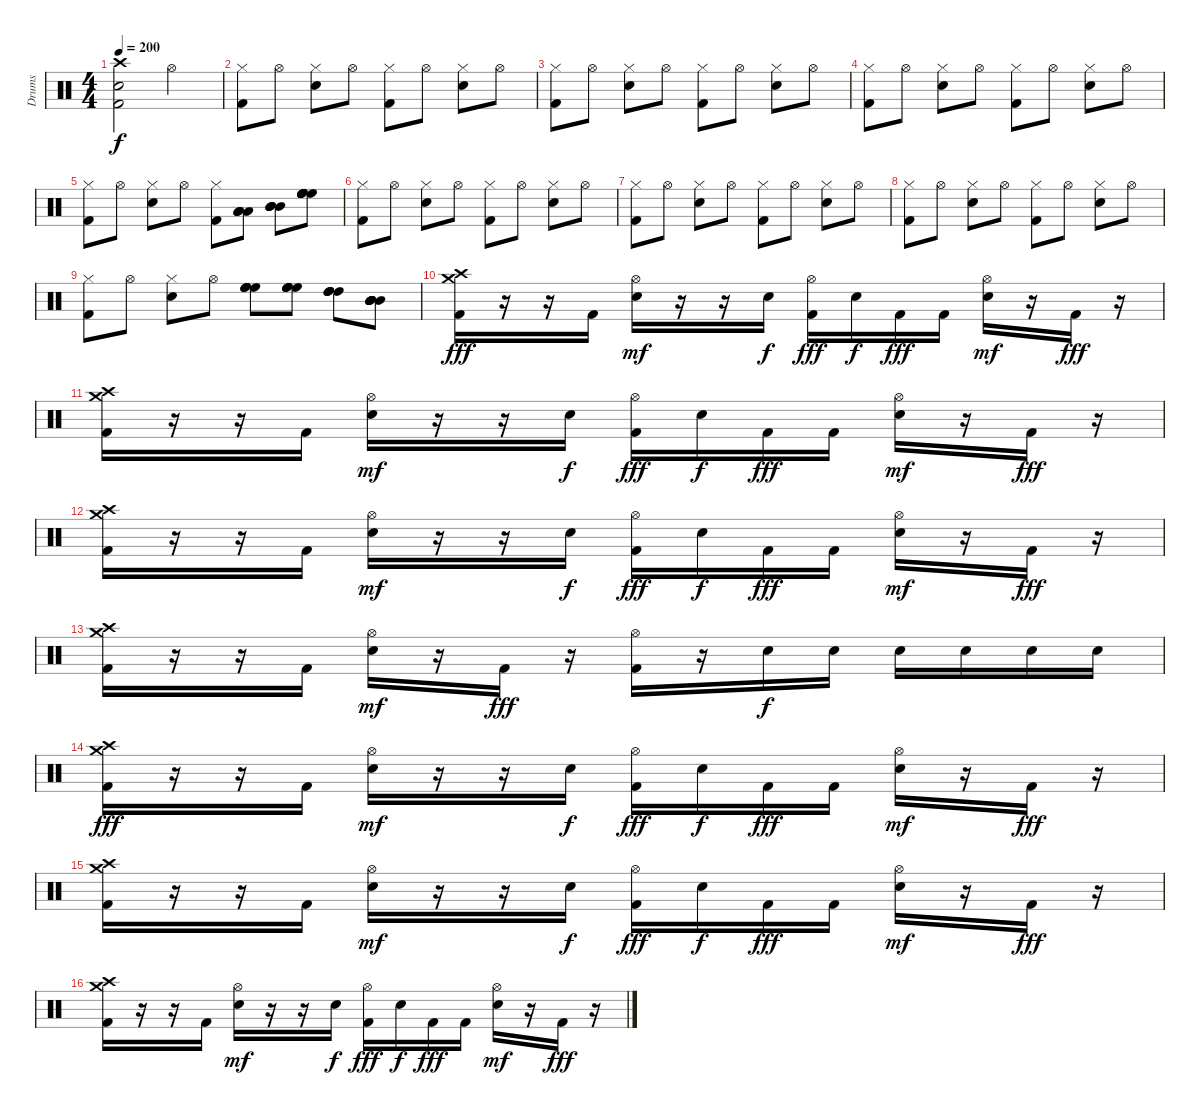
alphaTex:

\track ("Drums" "Drums") {instrument percussion}
\staff {score}
\articulation defaults
\ts (4 4)
\tempo 200
\clef neutral
\ks c
("Crash high (hit)" "Snare (hit) 2" "Kick (hit) 2").2{dy f} "Hi-Hat (open)".2 |
("Hi-Hat (closed)" "Kick (hit) 2").8 "Hi-Hat (open)".8 ("Hi-Hat (closed)" "Snare (hit) 2").8 "Hi-Hat (open)".8 ("Hi-Hat (closed)" "Kick (hit) 2").8 "Hi-Hat (open)".8 ("Hi-Hat (closed)" "Snare (hit) 2").8 "Hi-Hat (open)".8 |
("Hi-Hat (closed)" "Kick (hit) 2").8 "Hi-Hat (open)".8 ("Hi-Hat (closed)" "Snare (hit) 2").8 "Hi-Hat (open)".8 ("Hi-Hat (closed)" "Kick (hit) 2").8 "Hi-Hat (open)".8 ("Hi-Hat (closed)" "Snare (hit) 2").8 "Hi-Hat (open)".8 |
("Hi-Hat (closed)" "Kick (hit) 2").8 "Hi-Hat (open)".8 ("Hi-Hat (closed)" "Snare (hit) 2").8 "Hi-Hat (open)".8 ("Hi-Hat (closed)" "Kick (hit) 2").8 "Hi-Hat (open)".8 ("Hi-Hat (closed)" "Snare (hit) 2").8 "Hi-Hat (open)".8 |
("Hi-Hat (closed)" "Kick (hit) 2").8 "Hi-Hat (open)".8 ("Hi-Hat (closed)" "Snare (hit) 2").8 "Hi-Hat (open)".8 ("Hi-Hat (closed)" "Kick (hit) 2").8 ("Low Tom (hit)" "Low Tom (hit)" "Low Tom (hit)" "Low Tom (hit)").8 ("Mid Tom (hit)" "Mid Tom (hit)" "Mid Tom (hit)" "Mid Tom (hit)").8 ("High Floor Tom (hit)" "High Floor Tom (hit)" "High Floor Tom (hit)" "High Floor Tom (hit)" "High Floor Tom (hit)" "High Floor Tom (hit)").8 |
("Hi-Hat (closed)" "Kick (hit) 2").8 "Hi-Hat (open)".8 ("Hi-Hat (closed)" "Snare (hit) 2").8 "Hi-Hat (open)".8 ("Hi-Hat (closed)" "Kick (hit) 2").8 "Hi-Hat (open)".8 ("Hi-Hat (closed)" "Snare (hit) 2").8 "Hi-Hat (open)".8 |
("Hi-Hat (closed)" "Kick (hit) 2").8 "Hi-Hat (open)".8 ("Hi-Hat (closed)" "Snare (hit) 2").8 "Hi-Hat (open)".8 ("Hi-Hat (closed)" "Kick (hit) 2").8 "Hi-Hat (open)".8 ("Hi-Hat (closed)" "Snare (hit) 2").8 "Hi-Hat (open)".8 |
("Hi-Hat (closed)" "Kick (hit) 2").8 "Hi-Hat (open)".8 ("Hi-Hat (closed)" "Snare (hit) 2").8 "Hi-Hat (open)".8 ("Hi-Hat (closed)" "Kick (hit) 2").8 "Hi-Hat (open)".8 ("Hi-Hat (closed)" "Snare (hit) 2").8 "Hi-Hat (open)".8 |
("Hi-Hat (closed)" "Kick (hit) 2").8 "Hi-Hat (open)".8 ("Hi-Hat (closed)" "Snare (hit) 2").8 "Hi-Hat (open)".8 ("High Floor Tom (hit)" "High Floor Tom (hit)" "High Floor Tom (hit)" "High Floor Tom (hit)").8 ("High Floor Tom (hit)" "High Floor Tom (hit)" "High Floor Tom (hit)" "High Floor Tom (hit)").8 ("High Tom (hit)" "High Tom (hit)" "High Tom (hit)" "High Tom (hit)").8 ("Mid Tom (hit)" "Mid Tom (hit)" "Mid Tom (hit)" "Mid Tom (hit)" "Mid Tom (hit)" "Mid Tom (hit)").8 |
("Crash medium (hit)" "Crash high (hit)" "Kick (hit) 2").16{dy fff} r.16 r.16 "Kick (hit) 2".16 ("Hi-Hat (open)" "Snare (hit) 2").16{dy mf} r.16 r.16 "Snare (hit) 2".16{dy f} ("Hi-Hat (open)" "Kick (hit) 2").16{dy fff} "Snare (hit) 2".16{dy f} "Kick (hit) 2".16{dy fff} "Kick (hit) 2".16 ("Hi-Hat (open)" "Snare (hit) 2").16{dy mf} r.16 "Kick (hit) 2".16{dy fff} r.16 |
("Crash medium (hit)" "Crash high (hit)" "Kick (hit) 2").16 r.16 r.16 "Kick (hit) 2".16 ("Hi-Hat (open)" "Snare (hit) 2").16{dy mf} r.16 r.16 "Snare (hit) 2".16{dy f} ("Hi-Hat (open)" "Kick (hit) 2").16{dy fff} "Snare (hit) 2".16{dy f} "Kick (hit) 2".16{dy fff} "Kick (hit) 2".16 ("Hi-Hat (open)" "Snare (hit) 2").16{dy mf} r.16 "Kick (hit) 2".16{dy fff} r.16 |
("Crash medium (hit)" "Crash high (hit)" "Kick (hit) 2").16 r.16 r.16 "Kick (hit) 2".16 ("Hi-Hat (open)" "Snare (hit) 2").16{dy mf} r.16 r.16 "Snare (hit) 2".16{dy f} ("Hi-Hat (open)" "Kick (hit) 2").16{dy fff} "Snare (hit) 2".16{dy f} "Kick (hit) 2".16{dy fff} "Kick (hit) 2".16 ("Hi-Hat (open)" "Snare (hit) 2").16{dy mf} r.16 "Kick (hit) 2".16{dy fff} r.16 |
("Crash medium (hit)" "Crash high (hit)" "Kick (hit) 2").16 r.16 r.16 "Kick (hit) 2".16 ("Hi-Hat (open)" "Snare (hit) 2").16{dy mf} r.16 "Kick (hit) 2".16{dy fff} r.16 ("Hi-Hat (open)" "Kick (hit) 2").16 r.16 "Snare (hit) 2".16{dy f} "Snare (hit) 2".16 "Snare (hit) 2".16 "Snare (hit) 2".16 "Snare (hit) 2".16 "Snare (hit) 2".16 |
("Crash medium (hit)" "Crash high (hit)" "Kick (hit) 2").16{dy fff} r.16 r.16 "Kick (hit) 2".16 ("Hi-Hat (open)" "Snare (hit) 2").16{dy mf} r.16 r.16 "Snare (hit) 2".16{dy f} ("Hi-Hat (open)" "Kick (hit) 2").16{dy fff} "Snare (hit) 2".16{dy f} "Kick (hit) 2".16{dy fff} "Kick (hit) 2".16 ("Hi-Hat (open)" "Snare (hit) 2").16{dy mf} r.16 "Kick (hit) 2".16{dy fff} r.16 |
("Crash medium (hit)" "Crash high (hit)" "Kick (hit) 2").16 r.16 r.16 "Kick (hit) 2".16 ("Hi-Hat (open)" "Snare (hit) 2").16{dy mf} r.16 r.16 "Snare (hit) 2".16{dy f} ("Hi-Hat (open)" "Kick (hit) 2").16{dy fff} "Snare (hit) 2".16{dy f} "Kick (hit) 2".16{dy fff} "Kick (hit) 2".16 ("Hi-Hat (open)" "Snare (hit) 2").16{dy mf} r.16 "Kick (hit) 2".16{dy fff} r.16 |
("Crash medium (hit)" "Crash high (hit)" "Kick (hit) 2").16 r.16 r.16 "Kick (hit) 2".16 ("Hi-Hat (open)" "Snare (hit) 2").16{dy mf} r.16 r.16 "Snare (hit) 2".16{dy f} ("Hi-Hat (open)" "Kick (hit) 2").16{dy fff} "Snare (hit) 2".16{dy f} "Kick (hit) 2".16{dy fff} "Kick (hit) 2".16 ("Hi-Hat (open)" "Snare (hit) 2").16{dy mf} r.16 "Kick (hit) 2".16{dy fff} r.16
